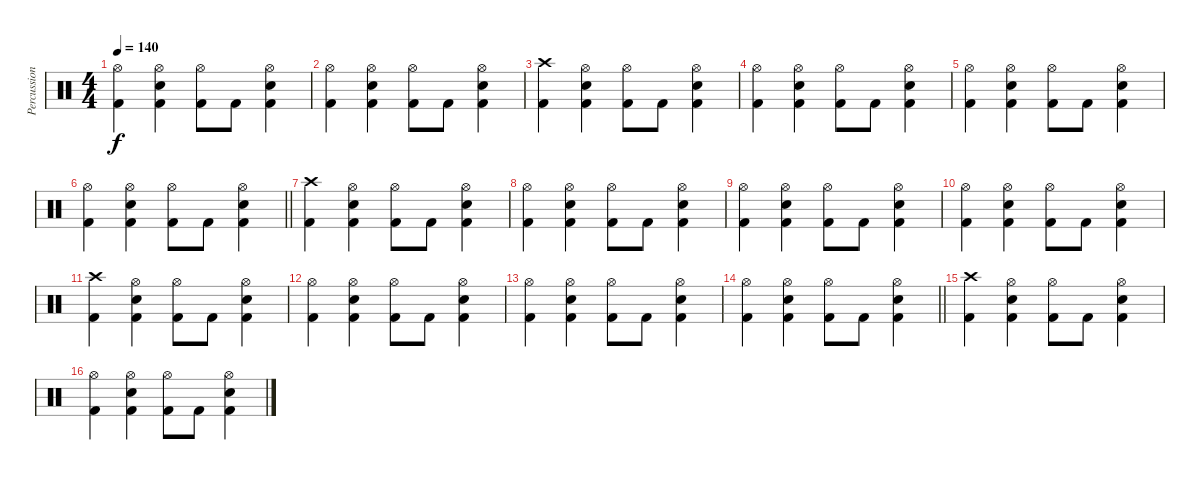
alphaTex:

\track ("Percussions" "Percussion") {instrument percussion}
\staff {score}
\articulation defaults
\ts (4 4)
\tempo 140
\clef neutral
\ks c
("Hi-Hat (open)" "Kick (hit) 2").4{dy f} ("Hi-Hat (open)" "Electric Snare (hit)" "Kick (hit) 2").4 ("Hi-Hat (open)" "Kick (hit) 2").8 "Kick (hit) 2".8 ("Hi-Hat (open)" "Electric Snare (hit)" "Kick (hit) 2").4 |
("Hi-Hat (open)" "Kick (hit) 2").4 ("Hi-Hat (open)" "Electric Snare (hit)" "Kick (hit) 2").4 ("Hi-Hat (open)" "Kick (hit) 2").8 "Kick (hit) 2".8 ("Hi-Hat (open)" "Electric Snare (hit)" "Kick (hit) 2").4 |
("Crash high (hit)" "Kick (hit) 2").4 ("Hi-Hat (open)" "Electric Snare (hit)" "Kick (hit) 2").4 ("Hi-Hat (open)" "Kick (hit) 2").8 "Kick (hit) 2".8 ("Hi-Hat (open)" "Electric Snare (hit)" "Kick (hit) 2").4 |
("Hi-Hat (open)" "Kick (hit) 2").4 ("Hi-Hat (open)" "Electric Snare (hit)" "Kick (hit) 2").4 ("Hi-Hat (open)" "Kick (hit) 2").8 "Kick (hit) 2".8 ("Hi-Hat (open)" "Electric Snare (hit)" "Kick (hit) 2").4 |
("Hi-Hat (open)" "Kick (hit) 2").4 ("Hi-Hat (open)" "Electric Snare (hit)" "Kick (hit) 2").4 ("Hi-Hat (open)" "Kick (hit) 2").8 "Kick (hit) 2".8 ("Hi-Hat (open)" "Electric Snare (hit)" "Kick (hit) 2").4 |
\barLineRight lightlight
("Hi-Hat (open)" "Kick (hit) 2").4 ("Hi-Hat (open)" "Electric Snare (hit)" "Kick (hit) 2").4 ("Hi-Hat (open)" "Kick (hit) 2").8 "Kick (hit) 2".8 ("Hi-Hat (open)" "Electric Snare (hit)" "Kick (hit) 2").4 |
("Crash high (hit)" "Kick (hit) 2").4 ("Hi-Hat (open)" "Electric Snare (hit)" "Kick (hit) 2").4 ("Hi-Hat (open)" "Kick (hit) 2").8 "Kick (hit) 2".8 ("Hi-Hat (open)" "Electric Snare (hit)" "Kick (hit) 2").4 |
("Hi-Hat (open)" "Kick (hit) 2").4 ("Hi-Hat (open)" "Electric Snare (hit)" "Kick (hit) 2").4 ("Hi-Hat (open)" "Kick (hit) 2").8 "Kick (hit) 2".8 ("Hi-Hat (open)" "Electric Snare (hit)" "Kick (hit) 2").4 |
("Hi-Hat (open)" "Kick (hit) 2").4 ("Hi-Hat (open)" "Electric Snare (hit)" "Kick (hit) 2").4 ("Hi-Hat (open)" "Kick (hit) 2").8 "Kick (hit) 2".8 ("Hi-Hat (open)" "Electric Snare (hit)" "Kick (hit) 2").4 |
("Hi-Hat (open)" "Kick (hit) 2").4 ("Hi-Hat (open)" "Electric Snare (hit)" "Kick (hit) 2").4 ("Hi-Hat (open)" "Kick (hit) 2").8 "Kick (hit) 2".8 ("Hi-Hat (open)" "Electric Snare (hit)" "Kick (hit) 2").4 |
("Crash high (hit)" "Kick (hit) 2").4 ("Hi-Hat (open)" "Electric Snare (hit)" "Kick (hit) 2").4 ("Hi-Hat (open)" "Kick (hit) 2").8 "Kick (hit) 2".8 ("Hi-Hat (open)" "Electric Snare (hit)" "Kick (hit) 2").4 |
("Hi-Hat (open)" "Kick (hit) 2").4 ("Hi-Hat (open)" "Electric Snare (hit)" "Kick (hit) 2").4 ("Hi-Hat (open)" "Kick (hit) 2").8 "Kick (hit) 2".8 ("Hi-Hat (open)" "Electric Snare (hit)" "Kick (hit) 2").4 |
("Hi-Hat (open)" "Kick (hit) 2").4 ("Hi-Hat (open)" "Electric Snare (hit)" "Kick (hit) 2").4 ("Hi-Hat (open)" "Kick (hit) 2").8 "Kick (hit) 2".8 ("Hi-Hat (open)" "Electric Snare (hit)" "Kick (hit) 2").4 |
\barLineRight lightlight
("Hi-Hat (open)" "Kick (hit) 2").4 ("Hi-Hat (open)" "Electric Snare (hit)" "Kick (hit) 2").4 ("Hi-Hat (open)" "Kick (hit) 2").8 "Kick (hit) 2".8 ("Hi-Hat (open)" "Electric Snare (hit)" "Kick (hit) 2").4 |
("Crash high (hit)" "Kick (hit) 2").4 ("Hi-Hat (open)" "Electric Snare (hit)" "Kick (hit) 2").4 ("Hi-Hat (open)" "Kick (hit) 2").8 "Kick (hit) 2".8 ("Hi-Hat (open)" "Electric Snare (hit)" "Kick (hit) 2").4 |
("Hi-Hat (open)" "Kick (hit) 2").4 ("Hi-Hat (open)" "Electric Snare (hit)" "Kick (hit) 2").4 ("Hi-Hat (open)" "Kick (hit) 2").8 "Kick (hit) 2".8 ("Hi-Hat (open)" "Electric Snare (hit)" "Kick (hit) 2").4
